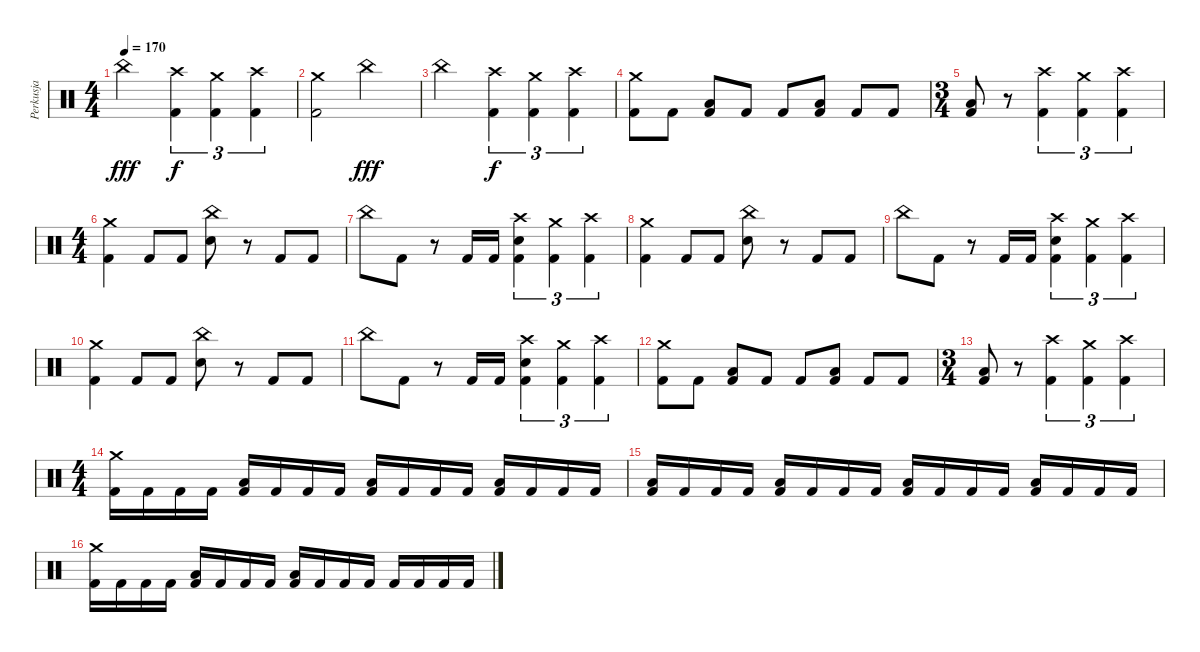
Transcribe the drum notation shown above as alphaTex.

\track ("Perkusja" "Perkusja") {instrument percussion}
\staff {score}
\articulation defaults
\ts (4 4)
\tempo 170
\clef neutral
\ks c "China (hit)".2{dy fff}
("Crash high (hit)" "Kick (hit) 2").4{tu (3 2) dy f} ("Crash medium (hit)" "Kick (hit) 2").4{tu (3 2)} ("Crash high (hit)" "Kick (hit) 2").4{tu (3 2)} |
("Crash medium (hit)" "Kick (hit) 2").2 "China (hit)".2{dy fff} |
"China (hit)".2 ("Crash high (hit)" "Kick (hit) 2").4{tu (3 2) dy f} ("Crash medium (hit)" "Kick (hit) 2").4{tu (3 2)} ("Crash high (hit)" "Kick (hit) 2").4{tu (3 2)} |
("Crash medium (hit)" "Kick (hit) 2").8 "Kick (hit) 2".8 ("Low Floor Tom (hit)" "Kick (hit) 2").8 "Kick (hit) 2".8 "Kick (hit) 2".8 ("Low Floor Tom (hit)" "Kick (hit) 2").8 "Kick (hit) 2".8 "Kick (hit) 2".8 |
\ts (3 4)
("Low Floor Tom (hit)" "Kick (hit) 2").8 r.8 ("Crash high (hit)" "Kick (hit) 2").4{tu (3 2)} ("Crash medium (hit)" "Kick (hit) 2").4{tu (3 2)} ("Crash high (hit)" "Kick (hit) 2").4{tu (3 2)} |
\ts (4 4)
("Crash medium (hit)" "Kick (hit) 2").4 "Kick (hit) 2".8 "Kick (hit) 2".8 ("China (hit)" "Electric Snare (hit)").8 r.8 "Kick (hit) 2".8 "Kick (hit) 2".8 |
"China (hit)".8 "Kick (hit) 2".8 r.8 "Kick (hit) 2".16 "Kick (hit) 2".16 ("Crash high (hit)" "Electric Snare (hit)" "Kick (hit) 2").4{tu (3 2)} ("Crash medium (hit)" "Kick (hit) 2").4{tu (3 2)} ("Crash high (hit)" "Kick (hit) 2").4{tu (3 2)} |
("Crash medium (hit)" "Kick (hit) 2").4 "Kick (hit) 2".8 "Kick (hit) 2".8 ("China (hit)" "Electric Snare (hit)").8 r.8 "Kick (hit) 2".8 "Kick (hit) 2".8 |
"China (hit)".8 "Kick (hit) 2".8 r.8 "Kick (hit) 2".16 "Kick (hit) 2".16 ("Crash high (hit)" "Electric Snare (hit)" "Kick (hit) 2").4{tu (3 2)} ("Crash medium (hit)" "Kick (hit) 2").4{tu (3 2)} ("Crash high (hit)" "Kick (hit) 2").4{tu (3 2)} |
("Crash medium (hit)" "Kick (hit) 2").4 "Kick (hit) 2".8 "Kick (hit) 2".8 ("China (hit)" "Electric Snare (hit)").8 r.8 "Kick (hit) 2".8 "Kick (hit) 2".8 |
"China (hit)".8 "Kick (hit) 2".8 r.8 "Kick (hit) 2".16 "Kick (hit) 2".16 ("Crash high (hit)" "Electric Snare (hit)" "Kick (hit) 2").4{tu (3 2)} ("Crash medium (hit)" "Kick (hit) 2").4{tu (3 2)} ("Crash high (hit)" "Kick (hit) 2").4{tu (3 2)} |
("Crash medium (hit)" "Kick (hit) 2").8 "Kick (hit) 2".8 ("Low Floor Tom (hit)" "Kick (hit) 2").8 "Kick (hit) 2".8 "Kick (hit) 2".8 ("Low Floor Tom (hit)" "Kick (hit) 2").8 "Kick (hit) 2".8 "Kick (hit) 2".8 |
\ts (3 4)
("Low Floor Tom (hit)" "Kick (hit) 2").8 r.8 ("Crash high (hit)" "Kick (hit) 2").4{tu (3 2)} ("Crash medium (hit)" "Kick (hit) 2").4{tu (3 2)} ("Crash high (hit)" "Kick (hit) 2").4{tu (3 2)} |
\ts (4 4)
("Crash medium (hit)" "Kick (hit) 2").16 "Kick (hit) 2".16 "Kick (hit) 2".16 "Kick (hit) 2".16 ("Low Floor Tom (hit)" "Kick (hit) 2").16 "Kick (hit) 2".16 "Kick (hit) 2".16 "Kick (hit) 2".16 ("Low Floor Tom (hit)" "Kick (hit) 2").16 "Kick (hit) 2".16 "Kick (hit) 2".16 "Kick (hit) 2".16 ("Low Floor Tom (hit)" "Kick (hit) 2").16 "Kick (hit) 2".16 "Kick (hit) 2".16 "Kick (hit) 2".16 |
("Low Floor Tom (hit)" "Kick (hit) 2").16 "Kick (hit) 2".16 "Kick (hit) 2".16 "Kick (hit) 2".16 ("Low Floor Tom (hit)" "Kick (hit) 2").16 "Kick (hit) 2".16 "Kick (hit) 2".16 "Kick (hit) 2".16 ("Low Floor Tom (hit)" "Kick (hit) 2").16 "Kick (hit) 2".16 "Kick (hit) 2".16 "Kick (hit) 2".16 ("Low Floor Tom (hit)" "Kick (hit) 2").16 "Kick (hit) 2".16 "Kick (hit) 2".16 "Kick (hit) 2".16 |
("Crash medium (hit)" "Kick (hit) 2").16 "Kick (hit) 2".16 "Kick (hit) 2".16 "Kick (hit) 2".16 ("Low Floor Tom (hit)" "Kick (hit) 2").16 "Kick (hit) 2".16 "Kick (hit) 2".16 "Kick (hit) 2".16 ("Low Floor Tom (hit)" "Kick (hit) 2").16 "Kick (hit) 2".16 "Kick (hit) 2".16 "Kick (hit) 2".16 "Kick (hit) 2".16 "Kick (hit) 2".16 "Kick (hit) 2".16 "Kick (hit) 2".16
